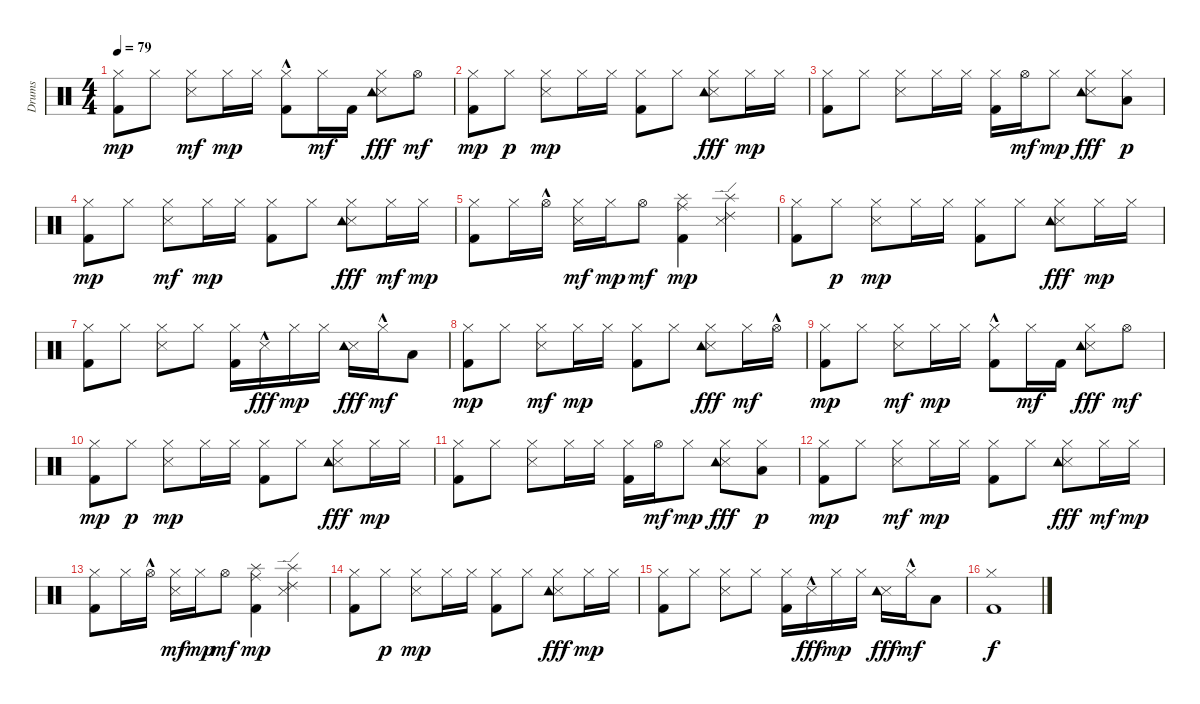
\track ("Drums" "Drums") {instrument percussion}
\staff {score}
\articulation defaults
\ts (4 4)
\tempo 79
\clef neutral
\ks c
("Kick (hit) 2" "Hi-Hat (closed)").8{dy mp} "Hi-Hat (closed)".8 ("Snare (side stick) 3" "Hi-Hat (closed)").8{dy mf} "Hi-Hat (closed)".16{dy mp} "Hi-Hat (closed)".16 ("Kick (hit) 2"{hac} "Hi-Hat (closed)").8 "Hi-Hat (closed)".16{dy mf} "Kick (hit) 2".16 ("Snare (side stick) 3" "Hi-Hat (closed)" "Tambourine (hit)").8{dy fff} "Hi-Hat (open)".8{dy mf} |
("Kick (hit) 2" "Hi-Hat (closed)").8{dy mp} "Hi-Hat (closed)".8{dy p} ("Snare (side stick) 3" "Hi-Hat (closed)").8{dy mp} "Hi-Hat (closed)".16 "Hi-Hat (closed)".16 ("Kick (hit) 2" "Hi-Hat (closed)").8 "Hi-Hat (closed)".8 ("Snare (side stick) 3" "Hi-Hat (closed)" "Tambourine (hit)").8{dy fff} "Hi-Hat (closed)".16{dy mp} "Hi-Hat (closed)".16 |
("Kick (hit) 2" "Hi-Hat (closed)").8 "Hi-Hat (closed)".8 ("Snare (side stick) 3" "Hi-Hat (closed)").8 "Hi-Hat (closed)".16 "Hi-Hat (closed)".16 ("Kick (hit) 2" "Hi-Hat (closed)").16 "Hi-Hat (open)".16{dy mf} "Hi-Hat (closed)".8{dy mp} ("Snare (side stick) 3" "Hi-Hat (closed)" "Tambourine (hit)").8{dy fff} ("Low Floor Tom (hit)" "Hi-Hat (closed)").8{dy p} |
("Kick (hit) 2" "Hi-Hat (closed)").8{dy mp} "Hi-Hat (closed)".8 ("Snare (side stick) 3" "Hi-Hat (closed)").8{dy mf} "Hi-Hat (closed)".16{dy mp} "Hi-Hat (closed)".16 ("Kick (hit) 2" "Hi-Hat (closed)").8 "Hi-Hat (closed)".8 ("Snare (side stick) 3" "Hi-Hat (closed)" "Tambourine (hit)").8{dy fff} "Hi-Hat (closed)".16{dy mf} "Hi-Hat (closed)".16{dy mp} |
("Kick (hit) 2" "Hi-Hat (closed)").8 "Hi-Hat (closed)".16 "Hi-Hat (open)"{hac}.16 ("Snare (side stick) 3" "Hi-Hat (closed)").16{dy mf} "Hi-Hat (closed)".16{dy mp} "Hi-Hat (open)".8{dy mf} ("Kick (hit) 2" "Ride (middle)" "Splash (hit)").4{dy mp} ("Snare (side stick) 3" "Splash (hit)" "Ride (edge) 2").4 |
("Kick (hit) 2" "Hi-Hat (closed)").8 "Hi-Hat (closed)".8{dy p} ("Snare (side stick) 3" "Hi-Hat (closed)").8{dy mp} "Hi-Hat (closed)".16 "Hi-Hat (closed)".16 ("Kick (hit) 2" "Hi-Hat (closed)").8 "Hi-Hat (closed)".8 ("Snare (side stick) 3" "Hi-Hat (closed)" "Tambourine (hit)").8{dy fff} "Hi-Hat (closed)".16{dy mp} "Hi-Hat (closed)".16 |
("Kick (hit) 2" "Hi-Hat (closed)").8 "Hi-Hat (closed)".8 ("Snare (side stick) 3" "Hi-Hat (closed)").8 "Hi-Hat (closed)".8 ("Kick (hit) 2" "Hi-Hat (closed)").16 "Snare (side stick) 3"{hac}.16{dy fff} "Hi-Hat (closed)".16{dy mp} "Hi-Hat (closed)".16 ("Snare (side stick) 3" "Tambourine (hit)").16{dy fff} "Hi-Hat (closed)"{hac}.16{dy mf} "Low Floor Tom (hit)".8 |
("Kick (hit) 2" "Hi-Hat (closed)").8{dy mp} "Hi-Hat (closed)".8 ("Snare (side stick) 3" "Hi-Hat (closed)").8{dy mf} "Hi-Hat (closed)".16{dy mp} "Hi-Hat (closed)".16 ("Kick (hit) 2" "Hi-Hat (closed)").8 "Hi-Hat (closed)".8 ("Snare (side stick) 3" "Hi-Hat (closed)" "Tambourine (hit)").8{dy fff} "Hi-Hat (closed)".16{dy mf} "Hi-Hat (open)"{hac}.16 |
("Kick (hit) 2" "Hi-Hat (closed)").8{dy mp} "Hi-Hat (closed)".8 ("Snare (side stick) 3" "Hi-Hat (closed)").8{dy mf} "Hi-Hat (closed)".16{dy mp} "Hi-Hat (closed)".16 ("Kick (hit) 2"{hac} "Hi-Hat (closed)").8 "Hi-Hat (closed)".16{dy mf} "Kick (hit) 2".16 ("Snare (side stick) 3" "Hi-Hat (closed)" "Tambourine (hit)").8{dy fff} "Hi-Hat (open)".8{dy mf} |
("Kick (hit) 2" "Hi-Hat (closed)").8{dy mp} "Hi-Hat (closed)".8{dy p} ("Snare (side stick) 3" "Hi-Hat (closed)").8{dy mp} "Hi-Hat (closed)".16 "Hi-Hat (closed)".16 ("Kick (hit) 2" "Hi-Hat (closed)").8 "Hi-Hat (closed)".8 ("Snare (side stick) 3" "Hi-Hat (closed)" "Tambourine (hit)").8{dy fff} "Hi-Hat (closed)".16{dy mp} "Hi-Hat (closed)".16 |
("Kick (hit) 2" "Hi-Hat (closed)").8 "Hi-Hat (closed)".8 ("Snare (side stick) 3" "Hi-Hat (closed)").8 "Hi-Hat (closed)".16 "Hi-Hat (closed)".16 ("Kick (hit) 2" "Hi-Hat (closed)").16 "Hi-Hat (open)".16{dy mf} "Hi-Hat (closed)".8{dy mp} ("Snare (side stick) 3" "Hi-Hat (closed)" "Tambourine (hit)").8{dy fff} ("Low Floor Tom (hit)" "Hi-Hat (closed)").8{dy p} |
("Kick (hit) 2" "Hi-Hat (closed)").8{dy mp} "Hi-Hat (closed)".8 ("Snare (side stick) 3" "Hi-Hat (closed)").8{dy mf} "Hi-Hat (closed)".16{dy mp} "Hi-Hat (closed)".16 ("Kick (hit) 2" "Hi-Hat (closed)").8 "Hi-Hat (closed)".8 ("Snare (side stick) 3" "Hi-Hat (closed)" "Tambourine (hit)").8{dy fff} "Hi-Hat (closed)".16{dy mf} "Hi-Hat (closed)".16{dy mp} |
("Kick (hit) 2" "Hi-Hat (closed)").8 "Hi-Hat (closed)".16 "Hi-Hat (open)"{hac}.16 ("Snare (side stick) 3" "Hi-Hat (closed)").16{dy mf} "Hi-Hat (closed)".16{dy mp} "Hi-Hat (open)".8{dy mf} ("Kick (hit) 2" "Ride (middle)" "Splash (hit)").4{dy mp} ("Snare (side stick) 3" "Splash (hit)" "Ride (edge) 2").4 |
("Kick (hit) 2" "Hi-Hat (closed)").8 "Hi-Hat (closed)".8{dy p} ("Snare (side stick) 3" "Hi-Hat (closed)").8{dy mp} "Hi-Hat (closed)".16 "Hi-Hat (closed)".16 ("Kick (hit) 2" "Hi-Hat (closed)").8 "Hi-Hat (closed)".8 ("Snare (side stick) 3" "Hi-Hat (closed)" "Tambourine (hit)").8{dy fff} "Hi-Hat (closed)".16{dy mp} "Hi-Hat (closed)".16 |
("Kick (hit) 2" "Hi-Hat (closed)").8 "Hi-Hat (closed)".8 ("Snare (side stick) 3" "Hi-Hat (closed)").8 "Hi-Hat (closed)".8 ("Kick (hit) 2" "Hi-Hat (closed)").16 "Snare (side stick) 3"{hac}.16{dy fff} "Hi-Hat (closed)".16{dy mp} "Hi-Hat (closed)".16 ("Snare (side stick) 3" "Tambourine (hit)").16{dy fff} "Hi-Hat (closed)"{hac}.16{dy mf} "Low Floor Tom (hit)".8 |
("Kick (hit) 2" "Hi-Hat (closed)").1{dy f}
